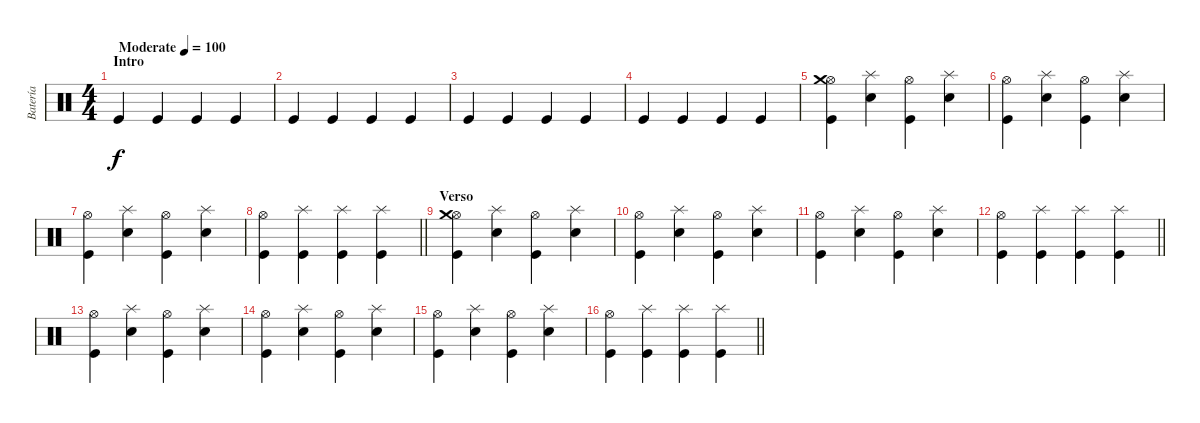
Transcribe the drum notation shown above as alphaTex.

\track ("Batería" "Batería") {instrument percussion}
\staff {score}
\articulation defaults
\ts (4 4)
\section ("" "Intro")
\tempo (100 "Moderate")
\clef neutral
\ks c "Kick (hit)".4{dy f} "Kick (hit)".4 "Kick (hit)".4 "Kick (hit)".4
|
"Kick (hit)".4 "Kick (hit)".4 "Kick (hit)".4 "Kick (hit)".4 |
"Kick (hit)".4 "Kick (hit)".4 "Kick (hit)".4 "Kick (hit)".4 |
"Kick (hit)".4 "Kick (hit)".4 "Kick (hit)".4 "Kick (hit)".4 |
("Kick (hit)" "Hi-Hat (open)" "Crash medium (hit)").4 ("Electric Snare (hit)" "Splash (hit)").4 ("Kick (hit)" "Hi-Hat (open)").4 ("Electric Snare (hit)" "Splash (hit)").4 |
("Kick (hit)" "Hi-Hat (open)").4 ("Electric Snare (hit)" "Splash (hit)").4 ("Kick (hit)" "Hi-Hat (open)").4 ("Electric Snare (hit)" "Splash (hit)").4 |
("Kick (hit)" "Hi-Hat (open)").4 ("Electric Snare (hit)" "Splash (hit)").4 ("Kick (hit)" "Hi-Hat (open)").4 ("Electric Snare (hit)" "Splash (hit)").4 |
\barLineRight lightlight
("Kick (hit)" "Hi-Hat (open)").4 ("Kick (hit)" "Splash (hit)").4 ("Kick (hit)" "Splash (hit)").4 ("Kick (hit)" "Splash (hit)").4 |
\section ("" "Verso")
("Kick (hit)" "Hi-Hat (open)" "Crash medium (hit)").4 ("Electric Snare (hit)" "Splash (hit)").4 ("Kick (hit)" "Hi-Hat (open)").4 ("Electric Snare (hit)" "Splash (hit)").4 |
("Kick (hit)" "Hi-Hat (open)").4 ("Electric Snare (hit)" "Splash (hit)").4 ("Kick (hit)" "Hi-Hat (open)").4 ("Electric Snare (hit)" "Splash (hit)").4 |
("Kick (hit)" "Hi-Hat (open)").4 ("Electric Snare (hit)" "Splash (hit)").4 ("Kick (hit)" "Hi-Hat (open)").4 ("Electric Snare (hit)" "Splash (hit)").4 |
\barLineRight lightlight
("Kick (hit)" "Hi-Hat (open)").4 ("Kick (hit)" "Splash (hit)").4 ("Kick (hit)" "Splash (hit)").4 ("Kick (hit)" "Splash (hit)").4 |
("Kick (hit)" "Hi-Hat (open)").4 ("Electric Snare (hit)" "Splash (hit)").4 ("Kick (hit)" "Hi-Hat (open)").4 ("Electric Snare (hit)" "Splash (hit)").4 |
("Kick (hit)" "Hi-Hat (open)").4 ("Electric Snare (hit)" "Splash (hit)").4 ("Kick (hit)" "Hi-Hat (open)").4 ("Electric Snare (hit)" "Splash (hit)").4 |
("Kick (hit)" "Hi-Hat (open)").4 ("Electric Snare (hit)" "Splash (hit)").4 ("Kick (hit)" "Hi-Hat (open)").4 ("Electric Snare (hit)" "Splash (hit)").4 |
\barLineRight lightlight
("Kick (hit)" "Hi-Hat (open)").4 ("Kick (hit)" "Splash (hit)").4 ("Kick (hit)" "Splash (hit)").4 ("Kick (hit)" "Splash (hit)").4
